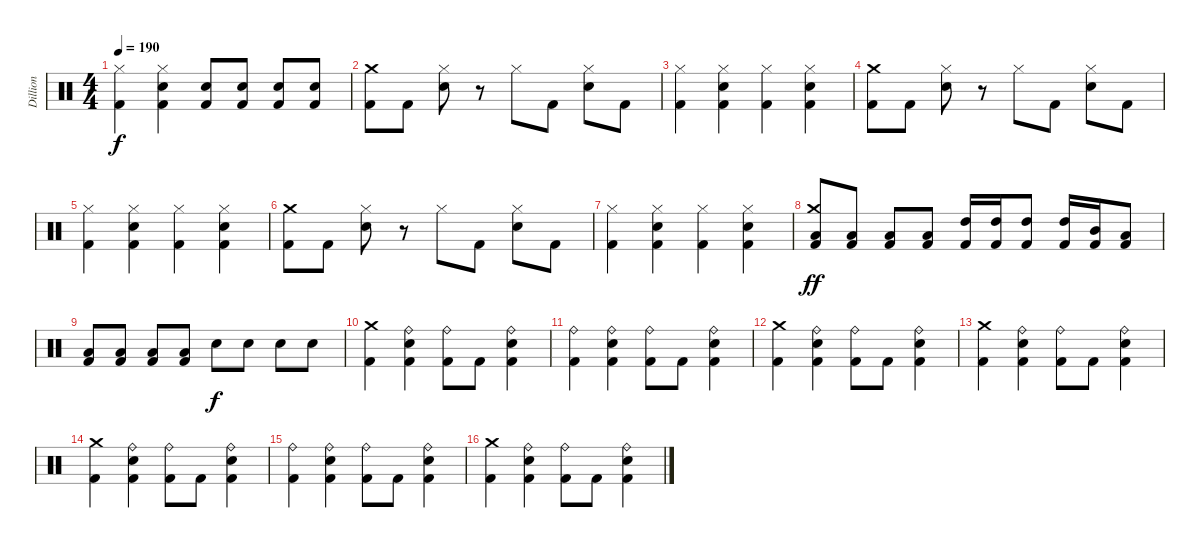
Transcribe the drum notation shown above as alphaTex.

\track ("Dillion" "Dillion") {instrument percussion}
\staff {score}
\articulation defaults
\ts (4 4)
\tempo 190
\clef neutral
\ks c
("Hi-Hat (closed)" "Kick (hit) 2").4{dy f} ("Hi-Hat (closed)" "Electric Snare (hit)" "Kick (hit) 2").4 ("Electric Snare (hit)" "Kick (hit) 2").8 ("Electric Snare (hit)" "Kick (hit) 2").8 ("Electric Snare (hit)" "Kick (hit) 2").8 ("Electric Snare (hit)" "Kick (hit) 2").8 |
("Crash medium (hit)" "Kick (hit) 2").8 "Kick (hit) 2".8 ("Hi-Hat (closed)" "Electric Snare (hit)").8 r.8 "Hi-Hat (closed)".8 "Kick (hit) 2".8 ("Hi-Hat (closed)" "Electric Snare (hit)").8 "Kick (hit) 2".8 |
("Hi-Hat (closed)" "Kick (hit) 2").4 ("Hi-Hat (closed)" "Electric Snare (hit)" "Kick (hit) 2").4 ("Hi-Hat (closed)" "Kick (hit) 2").4 ("Hi-Hat (closed)" "Electric Snare (hit)" "Kick (hit) 2").4 |
("Crash medium (hit)" "Kick (hit) 2").8 "Kick (hit) 2".8 ("Hi-Hat (closed)" "Electric Snare (hit)").8 r.8 "Hi-Hat (closed)".8 "Kick (hit) 2".8 ("Hi-Hat (closed)" "Electric Snare (hit)").8 "Kick (hit) 2".8 |
("Hi-Hat (closed)" "Kick (hit) 2").4 ("Hi-Hat (closed)" "Electric Snare (hit)" "Kick (hit) 2").4 ("Hi-Hat (closed)" "Kick (hit) 2").4 ("Hi-Hat (closed)" "Electric Snare (hit)" "Kick (hit) 2").4 |
("Crash medium (hit)" "Kick (hit) 2").8 "Kick (hit) 2".8 ("Hi-Hat (closed)" "Electric Snare (hit)").8 r.8 "Hi-Hat (closed)".8 "Kick (hit) 2".8 ("Hi-Hat (closed)" "Electric Snare (hit)").8 "Kick (hit) 2".8 |
("Hi-Hat (closed)" "Kick (hit) 2").4 ("Hi-Hat (closed)" "Electric Snare (hit)" "Kick (hit) 2").4 ("Hi-Hat (closed)" "Kick (hit) 2").4 ("Hi-Hat (closed)" "Electric Snare (hit)" "Kick (hit) 2").4 |
("Crash medium (hit)" "Low Tom (hit)" "Kick (hit) 2").8{dy ff} ("Low Tom (hit)" "Kick (hit) 2").8 ("Low Tom (hit)" "Kick (hit) 2").8 ("Low Tom (hit)" "Kick (hit) 2").8 ("High Tom (hit)" "Kick (hit) 2").16 ("High Tom (hit)" "Kick (hit) 2").16 ("High Tom (hit)" "Kick (hit) 2").8 ("High Tom (hit)" "Kick (hit) 2").16 ("Mid Tom (hit)" "Kick (hit) 2").16 ("Low Tom (hit)" "Kick (hit) 2").8 |
("Low Tom (hit)" "Kick (hit) 2").8 ("Low Tom (hit)" "Kick (hit) 2").8 ("Low Tom (hit)" "Kick (hit) 2").8 ("Low Tom (hit)" "Kick (hit) 2").8 "Electric Snare (hit)".8{dy f} "Electric Snare (hit)".8 "Electric Snare (hit)".8 "Electric Snare (hit)".8 |
("Crash medium (hit)" "Kick (hit) 2").4 ("Ride (bell)" "Electric Snare (hit)" "Kick (hit) 2").4 ("Ride (bell)" "Kick (hit) 2").8 "Kick (hit) 2".8 ("Ride (bell)" "Electric Snare (hit)" "Kick (hit) 2").4 |
("Ride (bell)" "Kick (hit) 2").4 ("Ride (bell)" "Electric Snare (hit)" "Kick (hit) 2").4 ("Ride (bell)" "Kick (hit) 2").8 "Kick (hit) 2".8 ("Ride (bell)" "Electric Snare (hit)" "Kick (hit) 2").4 |
("Crash medium (hit)" "Kick (hit) 2").4 ("Ride (bell)" "Electric Snare (hit)" "Kick (hit) 2").4 ("Ride (bell)" "Kick (hit) 2").8 "Kick (hit) 2".8 ("Ride (bell)" "Electric Snare (hit)" "Kick (hit) 2").4 |
("Crash medium (hit)" "Kick (hit) 2").4 ("Ride (bell)" "Electric Snare (hit)" "Kick (hit) 2").4 ("Ride (bell)" "Kick (hit) 2").8 "Kick (hit) 2".8 ("Ride (bell)" "Electric Snare (hit)" "Kick (hit) 2").4 |
("Crash medium (hit)" "Kick (hit) 2").4 ("Ride (bell)" "Electric Snare (hit)" "Kick (hit) 2").4 ("Ride (bell)" "Kick (hit) 2").8 "Kick (hit) 2".8 ("Ride (bell)" "Electric Snare (hit)" "Kick (hit) 2").4 |
("Ride (bell)" "Kick (hit) 2").4 ("Ride (bell)" "Electric Snare (hit)" "Kick (hit) 2").4 ("Ride (bell)" "Kick (hit) 2").8 "Kick (hit) 2".8 ("Ride (bell)" "Electric Snare (hit)" "Kick (hit) 2").4 |
("Crash medium (hit)" "Kick (hit) 2").4 ("Ride (bell)" "Electric Snare (hit)" "Kick (hit) 2").4 ("Ride (bell)" "Kick (hit) 2").8 "Kick (hit) 2".8 ("Ride (bell)" "Electric Snare (hit)" "Kick (hit) 2").4
